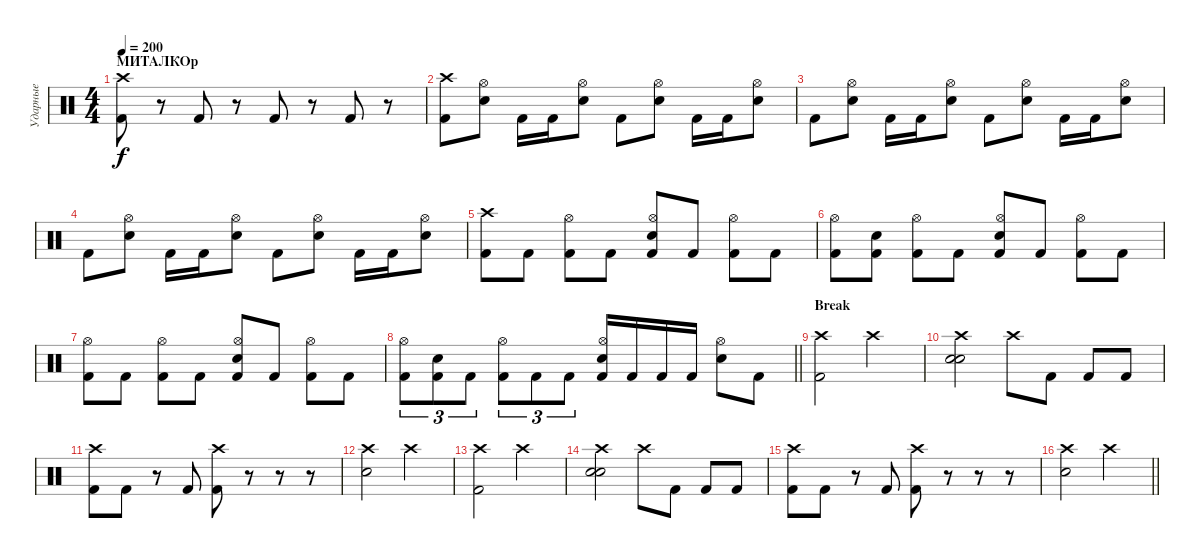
\track ("Ударные" "Ударные") {instrument percussion}
\staff {score}
\articulation defaults
\ts (4 4)
\section ("" "МИТАЛКОр")
\tempo 200
\clef neutral
\ks c
("Crash high (hit)" "Kick (hit) 2").8{dy f} r.8 "Kick (hit) 2".8 r.8 "Kick (hit) 2".8 r.8 "Kick (hit) 2".8 r.8 |
("Crash high (hit)" "Kick (hit) 2").8 ("Hi-Hat (open)" "Electric Snare (hit)").8 "Kick (hit) 2".16 "Kick (hit) 2".16 ("Hi-Hat (open)" "Electric Snare (hit)").8 "Kick (hit) 2".8 ("Hi-Hat (open)" "Electric Snare (hit)").8 "Kick (hit) 2".16 "Kick (hit) 2".16 ("Hi-Hat (open)" "Electric Snare (hit)").8 |
"Kick (hit) 2".8 ("Hi-Hat (open)" "Electric Snare (hit)").8 "Kick (hit) 2".16 "Kick (hit) 2".16 ("Hi-Hat (open)" "Electric Snare (hit)").8 "Kick (hit) 2".8 ("Hi-Hat (open)" "Electric Snare (hit)").8 "Kick (hit) 2".16 "Kick (hit) 2".16 ("Hi-Hat (open)" "Electric Snare (hit)").8 |
"Kick (hit) 2".8 ("Hi-Hat (open)" "Electric Snare (hit)").8 "Kick (hit) 2".16 "Kick (hit) 2".16 ("Hi-Hat (open)" "Electric Snare (hit)").8 "Kick (hit) 2".8 ("Hi-Hat (open)" "Electric Snare (hit)").8 "Kick (hit) 2".16 "Kick (hit) 2".16 ("Hi-Hat (open)" "Electric Snare (hit)").8 |
("Crash high (hit)" "Kick (hit) 2").8 "Kick (hit) 2".8 ("Hi-Hat (open)" "Kick (hit) 2").8 "Kick (hit) 2".8 ("Hi-Hat (open)" "Electric Snare (hit)" "Kick (hit) 2").8 "Kick (hit) 2".8 ("Hi-Hat (open)" "Kick (hit) 2").8 "Kick (hit) 2".8 |
("Hi-Hat (open)" "Kick (hit) 2").8 ("Electric Snare (hit)" "Kick (hit) 2").8 ("Hi-Hat (open)" "Kick (hit) 2").8 "Kick (hit) 2".8 ("Hi-Hat (open)" "Electric Snare (hit)" "Kick (hit) 2").8 "Kick (hit) 2".8 ("Hi-Hat (open)" "Kick (hit) 2").8 "Kick (hit) 2".8 |
("Hi-Hat (open)" "Kick (hit) 2").8 "Kick (hit) 2".8 ("Hi-Hat (open)" "Kick (hit) 2").8 "Kick (hit) 2".8 ("Hi-Hat (open)" "Electric Snare (hit)" "Kick (hit) 2").8 "Kick (hit) 2".8 ("Hi-Hat (open)" "Kick (hit) 2").8 "Kick (hit) 2".8 |
\barLineRight lightlight
("Hi-Hat (open)" "Kick (hit) 2").8{tu (3 2)} ("Electric Snare (hit)" "Kick (hit) 2").8{tu (3 2)} "Kick (hit) 2".8{tu (3 2)} ("Hi-Hat (open)" "Kick (hit) 2").8{tu (3 2)} "Kick (hit) 2".8{tu (3 2)} "Kick (hit) 2".8{tu (3 2)} ("Hi-Hat (open)" "Electric Snare (hit)" "Kick (hit) 2").16 "Kick (hit) 2".16 "Kick (hit) 2".16 "Kick (hit) 2".16 ("Hi-Hat (open)" "Electric Snare (hit)").8 "Kick (hit) 2".8 |
\section ("" "Break")
("Crash high (hit)" "Kick (hit) 2").2 "Crash high (hit)".2 |
("Crash high (hit)" "Electric Snare (hit)" "Snare (hit) 2").2 "Crash high (hit)".8 "Kick (hit) 2".8 "Kick (hit) 2".8 "Kick (hit) 2".8 |
("Crash high (hit)" "Kick (hit) 2").8 "Kick (hit) 2".8 r.8 "Kick (hit) 2".8 ("Crash high (hit)" "Kick (hit) 2").8 r.8 r.8 r.8 |
("Crash high (hit)" "Electric Snare (hit)").2 "Crash high (hit)".2 |
("Crash high (hit)" "Kick (hit) 2").2 "Crash high (hit)".2 |
("Crash high (hit)" "Electric Snare (hit)" "Snare (hit) 2").2 "Crash high (hit)".8 "Kick (hit) 2".8 "Kick (hit) 2".8 "Kick (hit) 2".8 |
("Crash high (hit)" "Kick (hit) 2").8 "Kick (hit) 2".8 r.8 "Kick (hit) 2".8 ("Crash high (hit)" "Kick (hit) 2").8 r.8 r.8 r.8 |
\barLineRight lightlight
("Crash high (hit)" "Electric Snare (hit)").2 "Crash high (hit)".2
